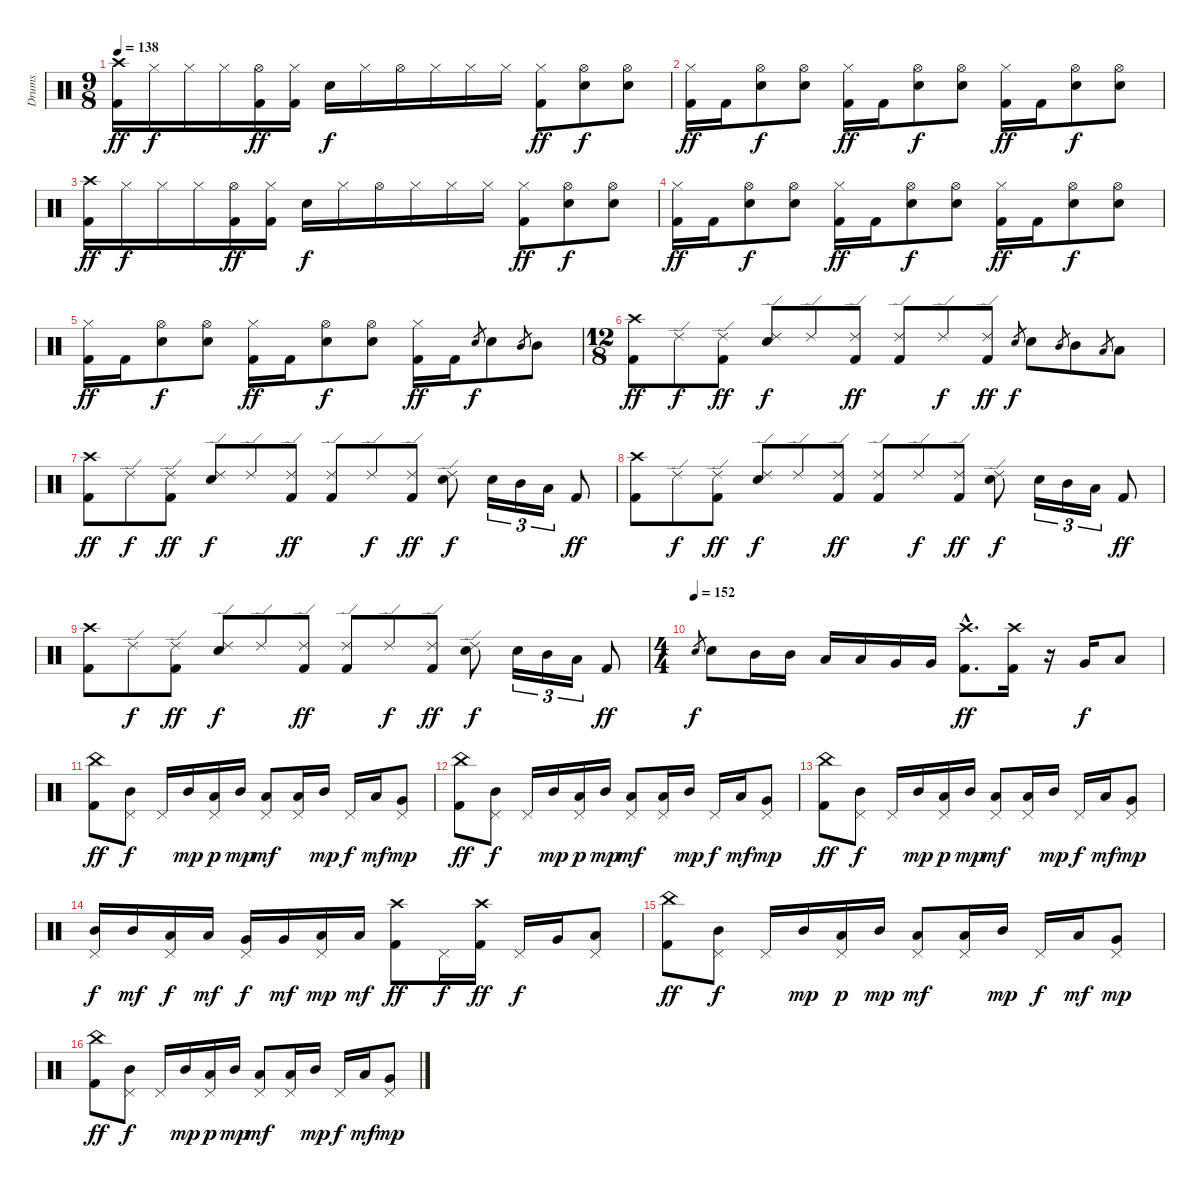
\track ("Drums" "Drums") {instrument percussion}
\staff {score}
\articulation defaults
\ts (9 8)
\tempo 138
\clef neutral
\ks c
("Crash high (hit)" "Kick (hit) 2").16{dy ff} "Hi-Hat (closed)".16{dy f} "Hi-Hat (closed)".16 "Hi-Hat (closed)".16 ("Hi-Hat (open)" "Kick (hit) 2").16{dy ff} ("Hi-Hat (closed)" "Kick (hit) 2").16 "Snare (hit) 2".16{dy f} "Hi-Hat (closed)".16 "Hi-Hat (open)".16 "Hi-Hat (closed)".16 "Hi-Hat (closed)".16 "Hi-Hat (closed)".16 ("Hi-Hat (closed)" "Kick (hit) 2").8{dy ff} ("Hi-Hat (open)" "Snare (hit) 2").8{dy f} ("Hi-Hat (open)" "Snare (hit) 2").8 |
("Hi-Hat (closed)" "Kick (hit) 2").16{dy ff} "Kick (hit) 2".16 ("Hi-Hat (open)" "Snare (hit) 2").8{dy f} ("Hi-Hat (open)" "Snare (hit) 2").8 ("Hi-Hat (closed)" "Kick (hit) 2").16{dy ff} "Kick (hit) 2".16 ("Hi-Hat (open)" "Snare (hit) 2").8{dy f} ("Hi-Hat (open)" "Snare (hit) 2").8 ("Hi-Hat (closed)" "Kick (hit) 2").16{dy ff} "Kick (hit) 2".16 ("Hi-Hat (open)" "Snare (hit) 2").8{dy f} ("Hi-Hat (open)" "Snare (hit) 2").8 |
("Crash high (hit)" "Kick (hit) 2").16{dy ff} "Hi-Hat (closed)".16{dy f} "Hi-Hat (closed)".16 "Hi-Hat (closed)".16 ("Hi-Hat (open)" "Kick (hit) 2").16{dy ff} ("Hi-Hat (closed)" "Kick (hit) 2").16 "Snare (hit) 2".16{dy f} "Hi-Hat (closed)".16 "Hi-Hat (open)".16 "Hi-Hat (closed)".16 "Hi-Hat (closed)".16 "Hi-Hat (closed)".16 ("Hi-Hat (closed)" "Kick (hit) 2").8{dy ff} ("Hi-Hat (open)" "Snare (hit) 2").8{dy f} ("Hi-Hat (open)" "Snare (hit) 2").8 |
("Hi-Hat (closed)" "Kick (hit) 2").16{dy ff} "Kick (hit) 2".16 ("Hi-Hat (open)" "Snare (hit) 2").8{dy f} ("Hi-Hat (open)" "Snare (hit) 2").8 ("Hi-Hat (closed)" "Kick (hit) 2").16{dy ff} "Kick (hit) 2".16 ("Hi-Hat (open)" "Snare (hit) 2").8{dy f} ("Hi-Hat (open)" "Snare (hit) 2").8 ("Hi-Hat (closed)" "Kick (hit) 2").16{dy ff} "Kick (hit) 2".16 ("Hi-Hat (open)" "Snare (hit) 2").8{dy f} ("Hi-Hat (open)" "Snare (hit) 2").8 |
("Hi-Hat (closed)" "Kick (hit) 2").16{dy ff} "Kick (hit) 2".16 ("Hi-Hat (open)" "Snare (hit) 2").8{dy f} ("Hi-Hat (open)" "Snare (hit) 2").8 ("Hi-Hat (closed)" "Kick (hit) 2").16{dy ff} "Kick (hit) 2".16 ("Hi-Hat (open)" "Snare (hit) 2").8{dy f} ("Hi-Hat (open)" "Snare (hit) 2").8 ("Hi-Hat (closed)" "Kick (hit) 2").16{dy ff} "Kick (hit) 2".16 "Snare (hit) 2".8{gr dy f} "Snare (hit) 2".8 "Mid Tom (hit)".8{gr} "Mid Tom (hit)".8 |
\ts (12 8)
("Crash high (hit)" "Kick (hit) 2").8{dy ff} "Ride (edge) 2".8{dy f} ("Ride (edge) 2" "Kick (hit) 2").8{dy ff} ("Ride (edge) 2" "Snare (hit) 2").8{dy f} "Ride (edge) 2".8 ("Ride (edge) 2" "Kick (hit) 2").8{dy ff} ("Ride (edge) 2" "Kick (hit) 2").8 "Ride (edge) 2".8{dy f} ("Ride (edge) 2" "Kick (hit) 2").8{dy ff} "Snare (hit) 2".8{gr dy f} "Snare (hit) 2".8 "Mid Tom (hit)".8{gr} "Mid Tom (hit)".8 "Low Tom (hit)".8{gr} "Low Tom (hit)".8 |
("Crash high (hit)" "Kick (hit) 2").8{dy ff} "Ride (edge) 2".8{dy f} ("Ride (edge) 2" "Kick (hit) 2").8{dy ff} ("Ride (edge) 2" "Snare (hit) 2").8{dy f} "Ride (edge) 2".8 ("Ride (edge) 2" "Kick (hit) 2").8{dy ff} ("Ride (edge) 2" "Kick (hit) 2").8 "Ride (edge) 2".8{dy f} ("Ride (edge) 2" "Kick (hit) 2").8{dy ff} ("Ride (edge) 2" "Snare (hit) 2").8{dy f} "Snare (hit) 2".16{tu (3 2)} "Mid Tom (hit)".16{tu (3 2)} "Low Tom (hit)".16{tu (3 2)} "Kick (hit) 2".8{dy ff} |
("Crash high (hit)" "Kick (hit) 2").8 "Ride (edge) 2".8{dy f} ("Ride (edge) 2" "Kick (hit) 2").8{dy ff} ("Ride (edge) 2" "Snare (hit) 2").8{dy f} "Ride (edge) 2".8 ("Ride (edge) 2" "Kick (hit) 2").8{dy ff} ("Ride (edge) 2" "Kick (hit) 2").8 "Ride (edge) 2".8{dy f} ("Ride (edge) 2" "Kick (hit) 2").8{dy ff} ("Ride (edge) 2" "Snare (hit) 2").8{dy f} "Snare (hit) 2".16{tu (3 2)} "Mid Tom (hit)".16{tu (3 2)} "Low Tom (hit)".16{tu (3 2)} "Kick (hit) 2".8{dy ff} |
("Crash high (hit)" "Kick (hit) 2").8 "Ride (edge) 2".8{dy f} ("Ride (edge) 2" "Kick (hit) 2").8{dy ff} ("Ride (edge) 2" "Snare (hit) 2").8{dy f} "Ride (edge) 2".8 ("Ride (edge) 2" "Kick (hit) 2").8{dy ff} ("Ride (edge) 2" "Kick (hit) 2").8 "Ride (edge) 2".8{dy f} ("Ride (edge) 2" "Kick (hit) 2").8{dy ff} ("Ride (edge) 2" "Snare (hit) 2").8{dy f} "Snare (hit) 2".16{tu (3 2)} "Mid Tom (hit)".16{tu (3 2)} "Low Tom (hit)".16{tu (3 2)} "Kick (hit) 2".8{dy ff} |
\ts (4 4)
\tempo (152)
"Snare (hit) 2".8{gr dy f} "Snare (hit) 2".8 "Mid Tom (hit)".16 "Mid Tom (hit)".16 "Low Tom (hit)".16 "Low Tom (hit)".16 "Very Low Tom (hit)".16 "Very Low Tom (hit)".16 ("Crash high (hit)"{hac} "Kick (hit) 2"{hac}).8{d dy ff} ("Crash high (hit)" "Kick (hit) 2").16 r.16 "Very Low Tom (hit)".16{dy f} "Low Tom (hit)".8 |
("China (hit)" "Kick (hit) 2").8{dy ff} ("Pedal Hi-Hat (hit)" "Mid Tom (hit)").8{dy f} "Pedal Hi-Hat (hit)".16 "Mid Tom (hit)".16{dy mp} ("Pedal Hi-Hat (hit)" "Low Tom (hit)").16{dy p} "Mid Tom (hit)".16{dy mp} ("Pedal Hi-Hat (hit)" "Low Tom (hit)").8{dy mf} ("Pedal Hi-Hat (hit)" "Low Tom (hit)").16 "Mid Tom (hit)".16{dy mp} "Pedal Hi-Hat (hit)".16{dy f} "Low Tom (hit)".16{dy mf} ("Pedal Hi-Hat (hit)" "Very Low Tom (hit)").8{dy mp} |
("China (hit)" "Kick (hit) 2").8{dy ff} ("Pedal Hi-Hat (hit)" "Mid Tom (hit)").8{dy f} "Pedal Hi-Hat (hit)".16 "Mid Tom (hit)".16{dy mp} ("Pedal Hi-Hat (hit)" "Low Tom (hit)").16{dy p} "Mid Tom (hit)".16{dy mp} ("Pedal Hi-Hat (hit)" "Low Tom (hit)").8{dy mf} ("Pedal Hi-Hat (hit)" "Low Tom (hit)").16 "Mid Tom (hit)".16{dy mp} "Pedal Hi-Hat (hit)".16{dy f} "Low Tom (hit)".16{dy mf} ("Pedal Hi-Hat (hit)" "Very Low Tom (hit)").8{dy mp} |
("China (hit)" "Kick (hit) 2").8{dy ff} ("Pedal Hi-Hat (hit)" "Mid Tom (hit)").8{dy f} "Pedal Hi-Hat (hit)".16 "Mid Tom (hit)".16{dy mp} ("Pedal Hi-Hat (hit)" "Low Tom (hit)").16{dy p} "Mid Tom (hit)".16{dy mp} ("Pedal Hi-Hat (hit)" "Low Tom (hit)").8{dy mf} ("Pedal Hi-Hat (hit)" "Low Tom (hit)").16 "Mid Tom (hit)".16{dy mp} "Pedal Hi-Hat (hit)".16{dy f} "Low Tom (hit)".16{dy mf} ("Pedal Hi-Hat (hit)" "Very Low Tom (hit)").8{dy mp} |
("Pedal Hi-Hat (hit)" "Mid Tom (hit)").16{dy f} "Mid Tom (hit)".16{dy mf} ("Pedal Hi-Hat (hit)" "Low Tom (hit)").16{dy f} "Low Tom (hit)".16{dy mf} ("Pedal Hi-Hat (hit)" "Very Low Tom (hit)").16{dy f} "Very Low Tom (hit)".16{dy mf} ("Pedal Hi-Hat (hit)" "Low Floor Tom (hit)").16{dy mp} "Low Floor Tom (hit)".16{dy mf} ("Crash high (hit)" "Kick (hit) 2").8{dy ff} "Pedal Hi-Hat (hit)".16{dy f} ("Crash high (hit)" "Kick (hit) 2").16{dy ff} "Pedal Hi-Hat (hit)".16{dy f} "Very Low Tom (hit)".16 ("Pedal Hi-Hat (hit)" "Low Tom (hit)").8 |
("China (hit)" "Kick (hit) 2").8{dy ff} ("Pedal Hi-Hat (hit)" "Mid Tom (hit)").8{dy f} "Pedal Hi-Hat (hit)".16 "Mid Tom (hit)".16{dy mp} ("Pedal Hi-Hat (hit)" "Low Tom (hit)").16{dy p} "Mid Tom (hit)".16{dy mp} ("Pedal Hi-Hat (hit)" "Low Tom (hit)").8{dy mf} ("Pedal Hi-Hat (hit)" "Low Tom (hit)").16 "Mid Tom (hit)".16{dy mp} "Pedal Hi-Hat (hit)".16{dy f} "Low Tom (hit)".16{dy mf} ("Pedal Hi-Hat (hit)" "Very Low Tom (hit)").8{dy mp} |
("China (hit)" "Kick (hit) 2").8{dy ff} ("Pedal Hi-Hat (hit)" "Mid Tom (hit)").8{dy f} "Pedal Hi-Hat (hit)".16 "Mid Tom (hit)".16{dy mp} ("Pedal Hi-Hat (hit)" "Low Tom (hit)").16{dy p} "Mid Tom (hit)".16{dy mp} ("Pedal Hi-Hat (hit)" "Low Tom (hit)").8{dy mf} ("Pedal Hi-Hat (hit)" "Low Tom (hit)").16 "Mid Tom (hit)".16{dy mp} "Pedal Hi-Hat (hit)".16{dy f} "Low Tom (hit)".16{dy mf} ("Pedal Hi-Hat (hit)" "Very Low Tom (hit)").8{dy mp}
